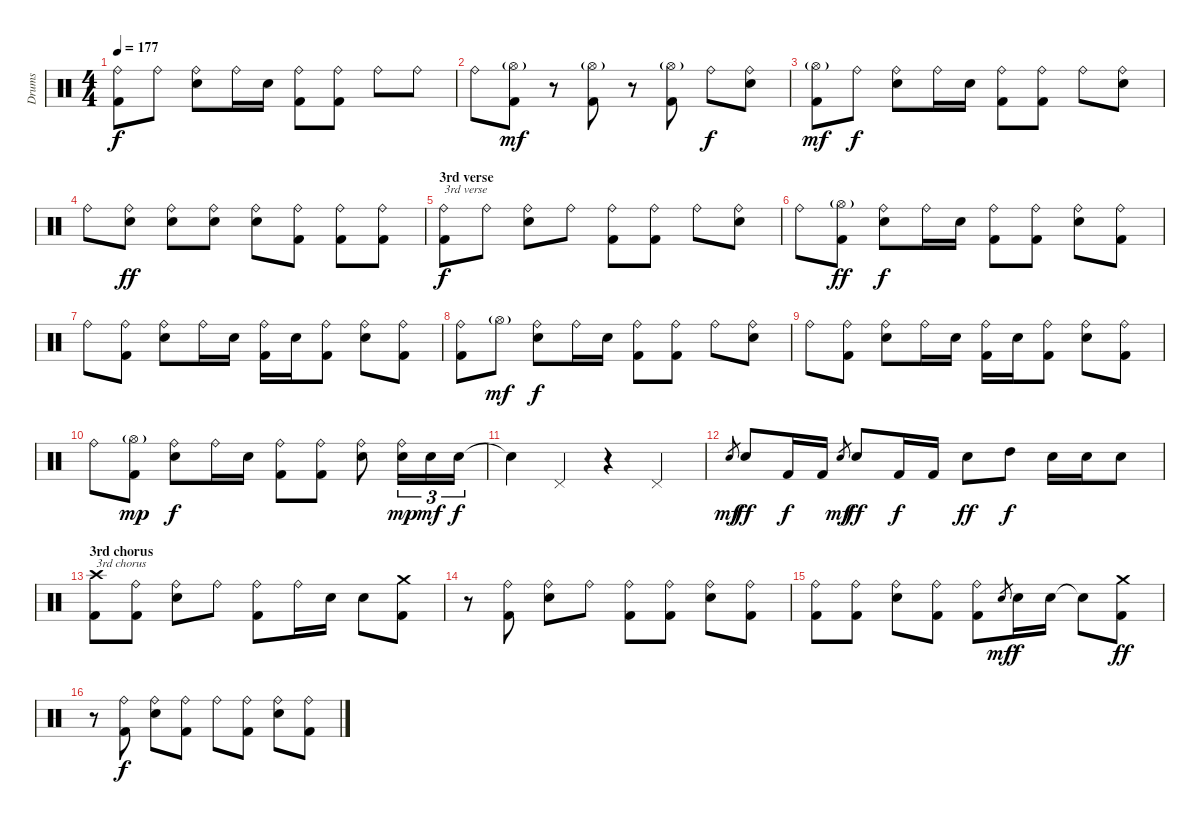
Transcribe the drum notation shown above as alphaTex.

\track ("Drums" "Drums") {instrument percussion}
\staff {score}
\articulation defaults
\ts (4 4)
\tempo 177
\clef neutral
\ks c
("Ride (bell)" "Kick (hit) 2").8{dy f} "Ride (bell)".8 ("Ride (bell)" "Electric Snare (hit)").8 "Ride (bell)".16 "Electric Snare (hit)".16 ("Ride (bell)" "Kick (hit) 2").8 ("Ride (bell)" "Kick (hit) 2").8 "Ride (bell)".8 "Ride (bell)".8 |
"Ride (bell)".8 ("Hi-Hat (open)"{g} "Kick (hit) 2").8{dy mf} r.8 ("Hi-Hat (open)"{g} "Kick (hit) 2").8 r.8 ("Hi-Hat (open)"{g} "Kick (hit) 2").8 "Ride (bell)".8{dy f} ("Ride (bell)" "Electric Snare (hit)").8 |
("Hi-Hat (open)"{g} "Kick (hit) 2").8{dy mf} "Ride (bell)".8{dy f} ("Ride (bell)" "Electric Snare (hit)").8 "Ride (bell)".16 "Electric Snare (hit)".16 ("Ride (bell)" "Kick (hit) 2").8 ("Ride (bell)" "Kick (hit) 2").8 "Ride (bell)".8 ("Ride (bell)" "Electric Snare (hit)").8 |
"Ride (bell)".8 ("Ride (bell)" "Electric Snare (hit)").8{dy ff} ("Ride (bell)" "Electric Snare (hit)").8 ("Ride (bell)" "Electric Snare (hit)").8 ("Ride (bell)" "Electric Snare (hit)").8 ("Ride (bell)" "Kick (hit) 2").8 ("Ride (bell)" "Kick (hit) 2").8 ("Ride (bell)" "Kick (hit) 2").8 |
\section ("" "3rd verse")
("Ride (bell)" "Kick (hit) 2").8{txt "3rd verse" dy f} "Ride (bell)".8 ("Ride (bell)" "Electric Snare (hit)").8 "Ride (bell)".8 ("Ride (bell)" "Kick (hit) 2").8 ("Ride (bell)" "Kick (hit) 2").8 "Ride (bell)".8 ("Ride (bell)" "Electric Snare (hit)").8 |
"Ride (bell)".8 ("Hi-Hat (open)"{g} "Kick (hit) 2").8{dy ff} ("Ride (bell)" "Electric Snare (hit)").8{dy f} "Ride (bell)".16 "Electric Snare (hit)".16 ("Ride (bell)" "Kick (hit) 2").8 ("Ride (bell)" "Kick (hit) 2").8 ("Ride (bell)" "Electric Snare (hit)").8 ("Ride (bell)" "Kick (hit) 2").8 |
"Ride (bell)".8 ("Ride (bell)" "Kick (hit) 2").8 ("Ride (bell)" "Electric Snare (hit)").8 "Ride (bell)".16 "Electric Snare (hit)".16 ("Ride (bell)" "Kick (hit) 2").16 "Electric Snare (hit)".16 ("Ride (bell)" "Kick (hit) 2").8 ("Ride (bell)" "Electric Snare (hit)").8 ("Ride (bell)" "Kick (hit) 2").8 |
("Ride (bell)" "Kick (hit) 2").8 "Hi-Hat (open)"{g}.8{dy mf} ("Ride (bell)" "Electric Snare (hit)").8{dy f} "Ride (bell)".16 "Electric Snare (hit)".16 ("Ride (bell)" "Kick (hit) 2").8 ("Ride (bell)" "Kick (hit) 2").8 "Ride (bell)".8 ("Ride (bell)" "Electric Snare (hit)").8 |
"Ride (bell)".8 ("Ride (bell)" "Kick (hit) 2").8 ("Ride (bell)" "Electric Snare (hit)").8 "Ride (bell)".16 "Electric Snare (hit)".16 ("Ride (bell)" "Kick (hit) 2").16 "Electric Snare (hit)".16 ("Ride (bell)" "Kick (hit) 2").8 ("Ride (bell)" "Electric Snare (hit)").8 ("Ride (bell)" "Kick (hit) 2").8 |
"Ride (bell)".8 ("Hi-Hat (open)"{g} "Kick (hit) 2").8{dy mp} ("Ride (bell)" "Electric Snare (hit)").8{dy f} "Ride (bell)".16 "Electric Snare (hit)".16 ("Ride (bell)" "Kick (hit) 2").8 ("Ride (bell)" "Kick (hit) 2").8 ("Ride (bell)" "Electric Snare (hit)").8 ("Ride (bell)" "Electric Snare (hit)").16{tu (3 2) dy mp} "Electric Snare (hit)".16{tu (3 2) dy mf} "Electric Snare (hit)".16{tu (3 2) dy f} |
"Snare (hit)"{t}.4 "Pedal Hi-Hat (hit)".4 r.4 "Pedal Hi-Hat (hit)".4 |
"Electric Snare (hit)".8{gr dy mf} "Electric Snare (hit)".8{dy ff} "Kick (hit) 2".16{dy f} "Kick (hit) 2".16 "Electric Snare (hit)".8{gr dy mf} "Electric Snare (hit)".8{dy ff} "Kick (hit) 2".16{dy f} "Kick (hit) 2".16 "Electric Snare (hit)".8{dy ff} "High Tom (hit)".8{dy f} "Electric Snare (hit)".16 "Electric Snare (hit)".16 "Electric Snare (hit)".8 |
\section ("" "3rd chorus")
("Crash high (hit)" "Kick (hit) 2").8{txt "3rd chorus"} ("Ride (bell)" "Kick (hit) 2").8 ("Ride (bell)" "Electric Snare (hit)").8 "Ride (bell)".8 ("Ride (bell)" "Kick (hit) 2").8 "Ride (bell)".16 "Electric Snare (hit)".16 "Electric Snare (hit)".8 ("Crash medium (hit)" "Kick (hit) 2").8 |
r.8 ("Ride (bell)" "Kick (hit) 2").8 ("Ride (bell)" "Electric Snare (hit)").8 "Ride (bell)".8 ("Ride (bell)" "Kick (hit) 2").8 ("Ride (bell)" "Kick (hit) 2").8 ("Ride (bell)" "Electric Snare (hit)").8 ("Ride (bell)" "Kick (hit) 2").8 |
("Ride (bell)" "Kick (hit) 2").8 ("Ride (bell)" "Kick (hit) 2").8 ("Ride (bell)" "Electric Snare (hit)").8 ("Ride (bell)" "Kick (hit) 2").8 ("Ride (bell)" "Kick (hit) 2").8 "Electric Snare (hit)".8{gr dy mf} "Electric Snare (hit)".16{dy f} "Electric Snare (hit)".16 "Snare (hit)"{t}.8 ("Crash medium (hit)" "Kick (hit) 2").8{dy ff} |
r.8 ("Ride (bell)" "Kick (hit) 2").8{dy f} ("Ride (bell)" "Electric Snare (hit)").8 ("Ride (bell)" "Kick (hit) 2").8 "Ride (bell)".8 ("Ride (bell)" "Kick (hit) 2").8 ("Ride (bell)" "Electric Snare (hit)").8 ("Ride (bell)" "Kick (hit) 2").8
